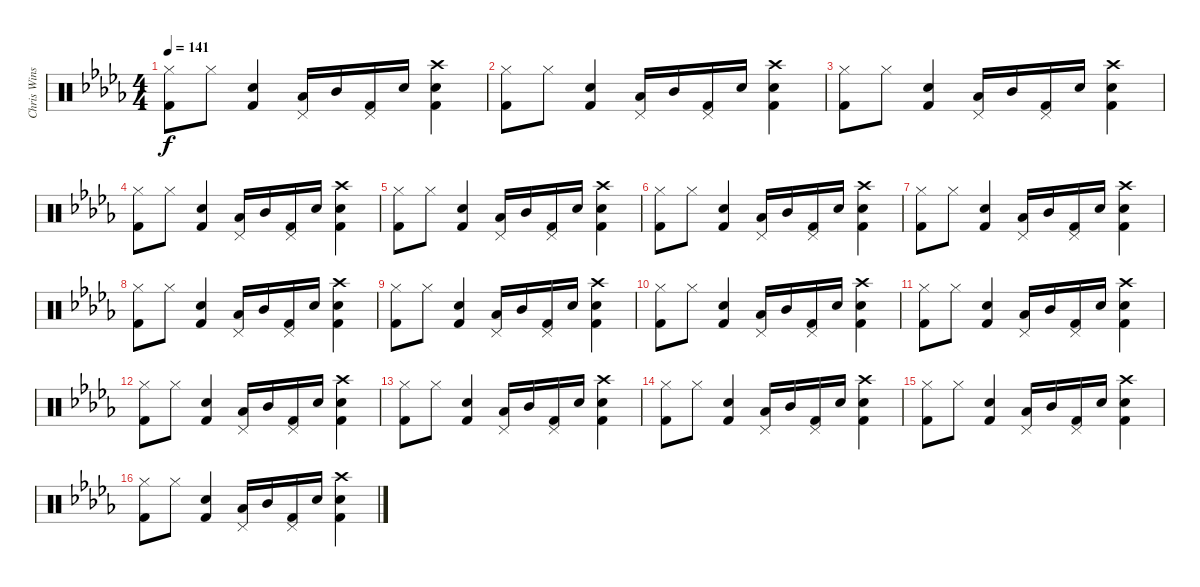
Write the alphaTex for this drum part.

\track ("Chris Winship (Drums)" "Chris Wins") {instrument percussion}
\staff {score}
\articulation defaults
\ts (4 4)
\tempo 141
\clef neutral
\ks db
("Hi-Hat (closed)" "Kick (hit) 2").8{dy f} "Hi-Hat (closed)".8 ("Electric Snare (hit)" "Kick (hit) 2").4 ("Pedal Hi-Hat (hit)" "Low Tom (hit)").16 "Mid Tom (hit)".16 ("Pedal Hi-Hat (hit)" "Kick (hit) 2").16 "Electric Snare (hit)".16 ("Crash high (hit)" "Kick (hit) 2" "Electric Snare (hit)").4 |
("Hi-Hat (closed)" "Kick (hit) 2").8 "Hi-Hat (closed)".8 ("Electric Snare (hit)" "Kick (hit) 2").4 ("Pedal Hi-Hat (hit)" "Low Tom (hit)").16 "Mid Tom (hit)".16 ("Pedal Hi-Hat (hit)" "Kick (hit) 2").16 "Electric Snare (hit)".16 ("Crash high (hit)" "Kick (hit) 2" "Electric Snare (hit)").4 |
("Hi-Hat (closed)" "Kick (hit) 2").8 "Hi-Hat (closed)".8 ("Electric Snare (hit)" "Kick (hit) 2").4 ("Pedal Hi-Hat (hit)" "Low Tom (hit)").16 "Mid Tom (hit)".16 ("Pedal Hi-Hat (hit)" "Kick (hit) 2").16 "Electric Snare (hit)".16 ("Crash high (hit)" "Kick (hit) 2" "Electric Snare (hit)").4 |
("Hi-Hat (closed)" "Kick (hit) 2").8 "Hi-Hat (closed)".8 ("Electric Snare (hit)" "Kick (hit) 2").4 ("Pedal Hi-Hat (hit)" "Low Tom (hit)").16 "Mid Tom (hit)".16 ("Pedal Hi-Hat (hit)" "Kick (hit) 2").16 "Electric Snare (hit)".16 ("Crash high (hit)" "Kick (hit) 2" "Electric Snare (hit)").4 |
("Hi-Hat (closed)" "Kick (hit) 2").8 "Hi-Hat (closed)".8 ("Electric Snare (hit)" "Kick (hit) 2").4 ("Pedal Hi-Hat (hit)" "Low Tom (hit)").16 "Mid Tom (hit)".16 ("Pedal Hi-Hat (hit)" "Kick (hit) 2").16 "Electric Snare (hit)".16 ("Crash high (hit)" "Kick (hit) 2" "Electric Snare (hit)").4 |
("Hi-Hat (closed)" "Kick (hit) 2").8 "Hi-Hat (closed)".8 ("Electric Snare (hit)" "Kick (hit) 2").4 ("Pedal Hi-Hat (hit)" "Low Tom (hit)").16 "Mid Tom (hit)".16 ("Pedal Hi-Hat (hit)" "Kick (hit) 2").16 "Electric Snare (hit)".16 ("Crash high (hit)" "Kick (hit) 2" "Electric Snare (hit)").4 |
("Hi-Hat (closed)" "Kick (hit) 2").8 "Hi-Hat (closed)".8 ("Electric Snare (hit)" "Kick (hit) 2").4 ("Pedal Hi-Hat (hit)" "Low Tom (hit)").16 "Mid Tom (hit)".16 ("Pedal Hi-Hat (hit)" "Kick (hit) 2").16 "Electric Snare (hit)".16 ("Crash high (hit)" "Kick (hit) 2" "Electric Snare (hit)").4 |
("Hi-Hat (closed)" "Kick (hit) 2").8 "Hi-Hat (closed)".8 ("Electric Snare (hit)" "Kick (hit) 2").4 ("Pedal Hi-Hat (hit)" "Low Tom (hit)").16 "Mid Tom (hit)".16 ("Pedal Hi-Hat (hit)" "Kick (hit) 2").16 "Electric Snare (hit)".16 ("Crash high (hit)" "Kick (hit) 2" "Electric Snare (hit)").4 |
("Hi-Hat (closed)" "Kick (hit) 2").8 "Hi-Hat (closed)".8 ("Electric Snare (hit)" "Kick (hit) 2").4 ("Pedal Hi-Hat (hit)" "Low Tom (hit)").16 "Mid Tom (hit)".16 ("Pedal Hi-Hat (hit)" "Kick (hit) 2").16 "Electric Snare (hit)".16 ("Crash high (hit)" "Kick (hit) 2" "Electric Snare (hit)").4 |
("Hi-Hat (closed)" "Kick (hit) 2").8 "Hi-Hat (closed)".8 ("Electric Snare (hit)" "Kick (hit) 2").4 ("Pedal Hi-Hat (hit)" "Low Tom (hit)").16 "Mid Tom (hit)".16 ("Pedal Hi-Hat (hit)" "Kick (hit) 2").16 "Electric Snare (hit)".16 ("Crash high (hit)" "Kick (hit) 2" "Electric Snare (hit)").4 |
("Hi-Hat (closed)" "Kick (hit) 2").8 "Hi-Hat (closed)".8 ("Electric Snare (hit)" "Kick (hit) 2").4 ("Pedal Hi-Hat (hit)" "Low Tom (hit)").16 "Mid Tom (hit)".16 ("Pedal Hi-Hat (hit)" "Kick (hit) 2").16 "Electric Snare (hit)".16 ("Crash high (hit)" "Kick (hit) 2" "Electric Snare (hit)").4 |
("Hi-Hat (closed)" "Kick (hit) 2").8 "Hi-Hat (closed)".8 ("Electric Snare (hit)" "Kick (hit) 2").4 ("Pedal Hi-Hat (hit)" "Low Tom (hit)").16 "Mid Tom (hit)".16 ("Pedal Hi-Hat (hit)" "Kick (hit) 2").16 "Electric Snare (hit)".16 ("Crash high (hit)" "Kick (hit) 2" "Electric Snare (hit)").4 |
("Hi-Hat (closed)" "Kick (hit) 2").8 "Hi-Hat (closed)".8 ("Electric Snare (hit)" "Kick (hit) 2").4 ("Pedal Hi-Hat (hit)" "Low Tom (hit)").16 "Mid Tom (hit)".16 ("Pedal Hi-Hat (hit)" "Kick (hit) 2").16 "Electric Snare (hit)".16 ("Crash high (hit)" "Kick (hit) 2" "Electric Snare (hit)").4 |
("Hi-Hat (closed)" "Kick (hit) 2").8 "Hi-Hat (closed)".8 ("Electric Snare (hit)" "Kick (hit) 2").4 ("Pedal Hi-Hat (hit)" "Low Tom (hit)").16 "Mid Tom (hit)".16 ("Pedal Hi-Hat (hit)" "Kick (hit) 2").16 "Electric Snare (hit)".16 ("Crash high (hit)" "Kick (hit) 2" "Electric Snare (hit)").4 |
("Hi-Hat (closed)" "Kick (hit) 2").8 "Hi-Hat (closed)".8 ("Electric Snare (hit)" "Kick (hit) 2").4 ("Pedal Hi-Hat (hit)" "Low Tom (hit)").16 "Mid Tom (hit)".16 ("Pedal Hi-Hat (hit)" "Kick (hit) 2").16 "Electric Snare (hit)".16 ("Crash high (hit)" "Kick (hit) 2" "Electric Snare (hit)").4 |
("Hi-Hat (closed)" "Kick (hit) 2").8 "Hi-Hat (closed)".8 ("Electric Snare (hit)" "Kick (hit) 2").4 ("Pedal Hi-Hat (hit)" "Low Tom (hit)").16 "Mid Tom (hit)".16 ("Pedal Hi-Hat (hit)" "Kick (hit) 2").16 "Electric Snare (hit)".16 ("Crash high (hit)" "Kick (hit) 2" "Electric Snare (hit)").4
